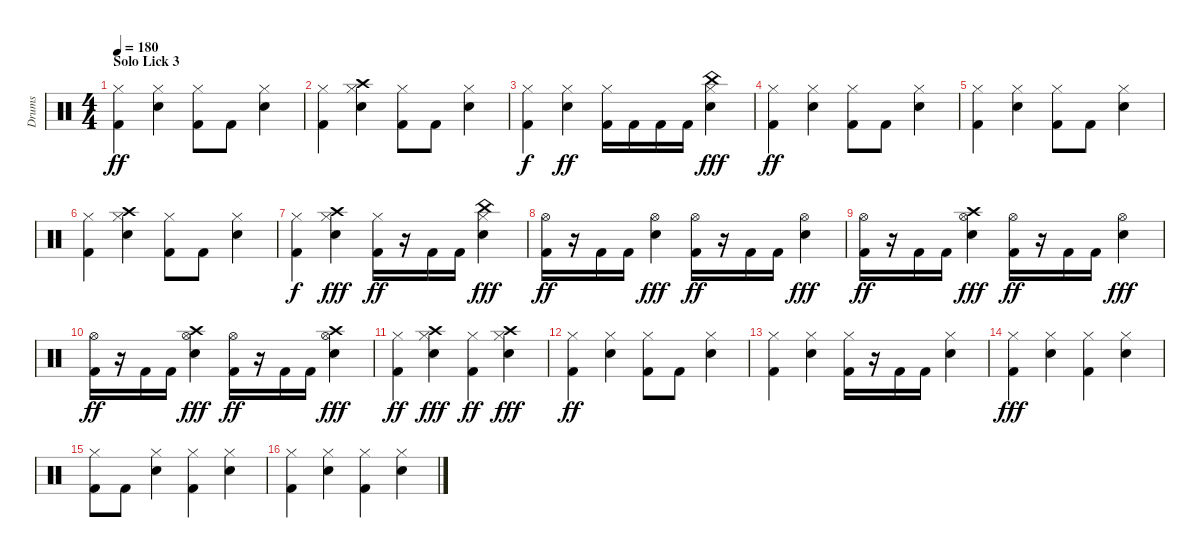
\track ("Drums" "Drums") {instrument percussion}
\staff {score}
\articulation defaults
\ts (4 4)
\section ("" "Solo Lick 3")
\tempo 180
\clef neutral
\ks c
("Hi-Hat (closed)" "Kick (hit) 2").4{dy ff} ("Hi-Hat (closed)" "Snare (hit) 2").4 ("Hi-Hat (closed)" "Kick (hit) 2").8 "Kick (hit) 2".8 ("Hi-Hat (closed)" "Snare (hit) 2").4 |
("Hi-Hat (closed)" "Kick (hit) 2").4 ("Hi-Hat (closed)" "Crash high (hit)" "Snare (hit) 2").4 ("Hi-Hat (closed)" "Kick (hit) 2").8 "Kick (hit) 2".8 ("Hi-Hat (closed)" "Snare (hit) 2").4 |
("Hi-Hat (closed)" "Kick (hit) 2").4{dy f} ("Hi-Hat (closed)" "Snare (hit) 2").4{dy ff} ("Hi-Hat (closed)" "Kick (hit) 2").16 "Kick (hit) 2".16 "Kick (hit) 2".16 "Kick (hit) 2".16 ("Hi-Hat (closed)" "China (hit)" "Snare (hit) 2").4{dy fff} |
("Hi-Hat (closed)" "Kick (hit) 2").4{dy ff} ("Hi-Hat (closed)" "Snare (hit) 2").4 ("Hi-Hat (closed)" "Kick (hit) 2").8 "Kick (hit) 2".8 ("Hi-Hat (closed)" "Snare (hit) 2").4 |
("Hi-Hat (closed)" "Kick (hit) 2").4 ("Hi-Hat (closed)" "Snare (hit) 2").4 ("Hi-Hat (closed)" "Kick (hit) 2").8 "Kick (hit) 2".8 ("Hi-Hat (closed)" "Snare (hit) 2").4 |
("Hi-Hat (closed)" "Kick (hit) 2").4 ("Hi-Hat (closed)" "Crash high (hit)" "Snare (hit) 2").4 ("Hi-Hat (closed)" "Kick (hit) 2").8 "Kick (hit) 2".8 ("Hi-Hat (closed)" "Snare (hit) 2").4 |
("Hi-Hat (closed)" "Kick (hit) 2").4{dy f} ("Hi-Hat (closed)" "Crash high (hit)" "Snare (hit) 2").4{dy fff} ("Hi-Hat (closed)" "Kick (hit) 2").16{dy ff} r.16 "Kick (hit) 2".16 "Kick (hit) 2".16 ("Hi-Hat (closed)" "China (hit)" "Snare (hit) 2").4{dy fff} |
("Hi-Hat (open)" "Kick (hit) 2").16{dy ff} r.16 "Kick (hit) 2".16 "Kick (hit) 2".16 ("Hi-Hat (open)" "Snare (hit) 2").4{dy fff} ("Hi-Hat (open)" "Kick (hit) 2").16{dy ff} r.16 "Kick (hit) 2".16 "Kick (hit) 2".16 ("Hi-Hat (open)" "Snare (hit) 2").4{dy fff} |
("Hi-Hat (open)" "Kick (hit) 2").16{dy ff} r.16 "Kick (hit) 2".16 "Kick (hit) 2".16 ("Hi-Hat (open)" "Crash high (hit)" "Snare (hit) 2").4{dy fff} ("Hi-Hat (open)" "Kick (hit) 2").16{dy ff} r.16 "Kick (hit) 2".16 "Kick (hit) 2".16 ("Hi-Hat (open)" "Snare (hit) 2").4{dy fff} |
("Hi-Hat (open)" "Kick (hit) 2").16{dy ff} r.16 "Kick (hit) 2".16 "Kick (hit) 2".16 ("Hi-Hat (open)" "Crash high (hit)" "Snare (hit) 2").4{dy fff} ("Hi-Hat (open)" "Kick (hit) 2").16{dy ff} r.16 "Kick (hit) 2".16 "Kick (hit) 2".16 ("Hi-Hat (open)" "Crash high (hit)" "Snare (hit) 2").4{dy fff} |
("Hi-Hat (closed)" "Kick (hit) 2").4{dy ff} ("Hi-Hat (closed)" "Crash high (hit)" "Snare (hit) 2").4{dy fff} ("Hi-Hat (closed)" "Kick (hit) 2").4{dy ff} ("Hi-Hat (closed)" "Crash high (hit)" "Snare (hit) 2").4{dy fff} |
("Hi-Hat (closed)" "Kick (hit) 2").4{dy ff} ("Hi-Hat (closed)" "Snare (hit) 2").4 ("Hi-Hat (closed)" "Kick (hit) 2").8 "Kick (hit) 2".8 ("Hi-Hat (closed)" "Snare (hit) 2").4 |
("Hi-Hat (closed)" "Kick (hit) 2").4 ("Hi-Hat (closed)" "Snare (hit) 2").4 ("Hi-Hat (closed)" "Kick (hit) 2").16 r.16 "Kick (hit) 2".16 "Kick (hit) 2".16 ("Hi-Hat (closed)" "Snare (hit) 2").4 |
("Hi-Hat (closed)" "Kick (hit) 2").4{dy fff} ("Hi-Hat (closed)" "Snare (hit) 2").4 ("Hi-Hat (closed)" "Kick (hit) 2").4 ("Hi-Hat (closed)" "Snare (hit) 2").4 |
("Hi-Hat (closed)" "Kick (hit) 2").8 "Kick (hit) 2".8 ("Hi-Hat (closed)" "Snare (hit) 2").4 ("Hi-Hat (closed)" "Kick (hit) 2").4 ("Hi-Hat (closed)" "Snare (hit) 2").4 |
("Hi-Hat (closed)" "Kick (hit) 2").4 ("Hi-Hat (closed)" "Snare (hit) 2").4 ("Hi-Hat (closed)" "Kick (hit) 2").4 ("Hi-Hat (closed)" "Snare (hit) 2").4
